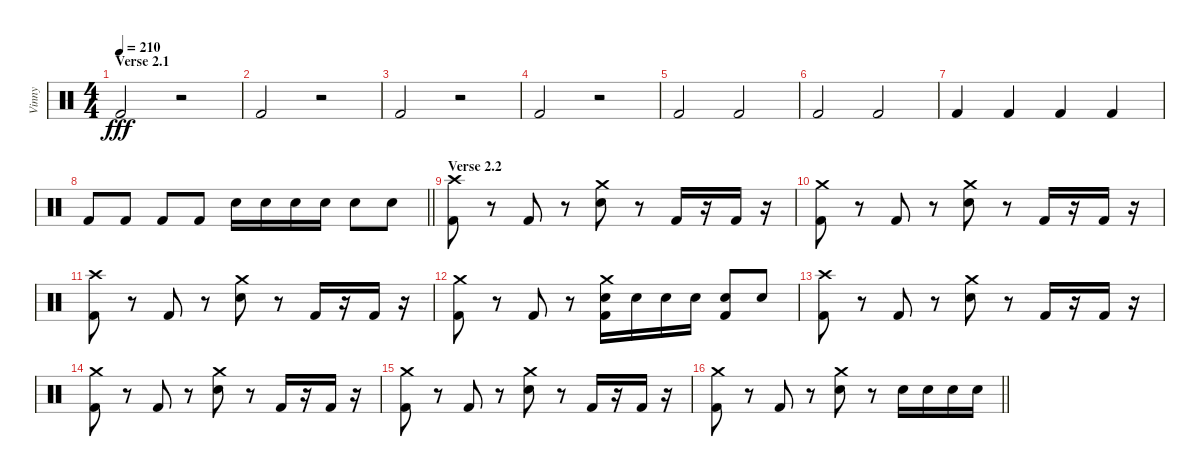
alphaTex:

\track ("Vinny" "Vinny") {instrument percussion}
\staff {score}
\articulation defaults
\ts (4 4)
\section ("" "Verse 2.1")
\tempo 210
\clef neutral
\ks c "Kick (hit) 2".2{dy fff}
r.2 |
"Kick (hit) 2".2 r.2 |
"Kick (hit) 2".2 r.2 |
"Kick (hit) 2".2 r.2 |
"Kick (hit) 2".2 "Kick (hit) 2".2 |
"Kick (hit) 2".2 "Kick (hit) 2".2 |
"Kick (hit) 2".4 "Kick (hit) 2".4 "Kick (hit) 2".4 "Kick (hit) 2".4 |
\barLineRight lightlight "Kick (hit) 2".8 "Kick (hit) 2".8 "Kick (hit) 2".8 "Kick (hit) 2".8 "Electric Snare (hit)".16 "Electric Snare (hit)".16 "Electric Snare (hit)".16 "Electric Snare (hit)".16 "Electric Snare (hit)".8 "Electric Snare (hit)".8
|
\section ("" "Verse 2.2")
("Crash high (hit)" "Kick (hit) 2").8 r.8 "Kick (hit) 2".8 r.8 ("Crash medium (hit)" "Electric Snare (hit)").8 r.8 "Kick (hit) 2".16 r.16 "Kick (hit) 2".16 r.16 |
("Crash medium (hit)" "Kick (hit) 2").8 r.8 "Kick (hit) 2".8 r.8 ("Crash medium (hit)" "Electric Snare (hit)").8 r.8 "Kick (hit) 2".16 r.16 "Kick (hit) 2".16 r.16 |
("Crash high (hit)" "Kick (hit) 2").8 r.8 "Kick (hit) 2".8 r.8 ("Crash medium (hit)" "Electric Snare (hit)").8 r.8 "Kick (hit) 2".16 r.16 "Kick (hit) 2".16 r.16 |
("Crash medium (hit)" "Kick (hit) 2").8 r.8 "Kick (hit) 2".8 r.8 ("Crash medium (hit)" "Electric Snare (hit)" "Kick (hit) 2").16 "Electric Snare (hit)".16 "Electric Snare (hit)".16 "Electric Snare (hit)".16 ("Electric Snare (hit)" "Kick (hit) 2").8 "Electric Snare (hit)".8 |
("Crash high (hit)" "Kick (hit) 2").8 r.8 "Kick (hit) 2".8 r.8 ("Crash medium (hit)" "Electric Snare (hit)").8 r.8 "Kick (hit) 2".16 r.16 "Kick (hit) 2".16 r.16 |
("Crash medium (hit)" "Kick (hit) 2").8 r.8 "Kick (hit) 2".8 r.8 ("Crash medium (hit)" "Electric Snare (hit)").8 r.8 "Kick (hit) 2".16 r.16 "Kick (hit) 2".16 r.16 |
("Crash medium (hit)" "Kick (hit) 2").8 r.8 "Kick (hit) 2".8 r.8 ("Crash medium (hit)" "Electric Snare (hit)").8 r.8 "Kick (hit) 2".16 r.16 "Kick (hit) 2".16 r.16 |
\barLineRight lightlight
("Crash medium (hit)" "Kick (hit) 2").8 r.8 "Kick (hit) 2".8 r.8 ("Crash medium (hit)" "Electric Snare (hit)").8 r.8 "Electric Snare (hit)".16 "Electric Snare (hit)".16 "Electric Snare (hit)".16 "Electric Snare (hit)".16
